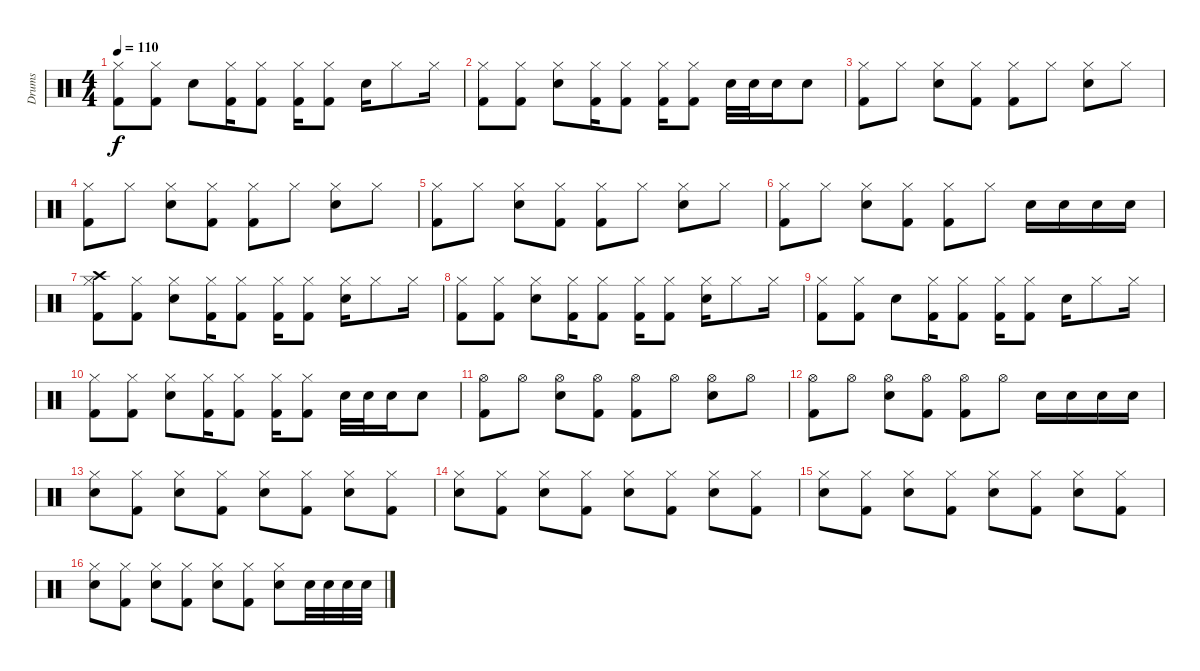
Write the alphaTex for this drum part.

\track ("Drums" "Drums") {instrument percussion}
\staff {score}
\articulation defaults
\ts (4 4)
\tempo 110
\clef neutral
\ks c
("Hi-Hat (closed)" "Kick (hit) 2").8{dy f} ("Hi-Hat (closed)" "Kick (hit) 2").8 "Electric Snare (hit)".8 ("Hi-Hat (closed)" "Kick (hit) 2").16 ("Hi-Hat (closed)" "Kick (hit) 2").8 ("Hi-Hat (closed)" "Kick (hit) 2").16 ("Hi-Hat (closed)" "Kick (hit) 2").8 "Electric Snare (hit)".16 "Hi-Hat (closed)".8 "Hi-Hat (closed)".16 |
("Hi-Hat (closed)" "Kick (hit) 2").8 ("Hi-Hat (closed)" "Kick (hit) 2").8 ("Hi-Hat (closed)" "Electric Snare (hit)").8 ("Hi-Hat (closed)" "Kick (hit) 2").16 ("Hi-Hat (closed)" "Kick (hit) 2").8 ("Hi-Hat (closed)" "Kick (hit) 2").16 ("Hi-Hat (closed)" "Kick (hit) 2").8 "Electric Snare (hit)".32 "Electric Snare (hit)".32 "Electric Snare (hit)".16 "Electric Snare (hit)".8 |
("Hi-Hat (closed)" "Kick (hit) 2").8 "Hi-Hat (closed)".8 ("Hi-Hat (closed)" "Electric Snare (hit)").8 ("Hi-Hat (closed)" "Kick (hit) 2").8 ("Hi-Hat (closed)" "Kick (hit) 2").8 "Hi-Hat (closed)".8 ("Hi-Hat (closed)" "Electric Snare (hit)").8 "Hi-Hat (closed)".8 |
("Hi-Hat (closed)" "Kick (hit) 2").8 "Hi-Hat (closed)".8 ("Hi-Hat (closed)" "Electric Snare (hit)").8 ("Hi-Hat (closed)" "Kick (hit) 2").8 ("Hi-Hat (closed)" "Kick (hit) 2").8 "Hi-Hat (closed)".8 ("Hi-Hat (closed)" "Electric Snare (hit)").8 "Hi-Hat (closed)".8 |
("Hi-Hat (closed)" "Kick (hit) 2").8 "Hi-Hat (closed)".8 ("Hi-Hat (closed)" "Electric Snare (hit)").8 ("Hi-Hat (closed)" "Kick (hit) 2").8 ("Hi-Hat (closed)" "Kick (hit) 2").8 "Hi-Hat (closed)".8 ("Hi-Hat (closed)" "Electric Snare (hit)").8 "Hi-Hat (closed)".8 |
("Hi-Hat (closed)" "Kick (hit) 2").8 "Hi-Hat (closed)".8 ("Hi-Hat (closed)" "Electric Snare (hit)").8 ("Hi-Hat (closed)" "Kick (hit) 2").8 ("Hi-Hat (closed)" "Kick (hit) 2").8 "Hi-Hat (closed)".8 "Electric Snare (hit)".16 "Electric Snare (hit)".16 "Electric Snare (hit)".16 "Electric Snare (hit)".16 |
("Crash high (hit)" "Hi-Hat (closed)" "Kick (hit) 2").8 ("Hi-Hat (closed)" "Kick (hit) 2").8 ("Hi-Hat (closed)" "Electric Snare (hit)").8 ("Hi-Hat (closed)" "Kick (hit) 2").16 ("Hi-Hat (closed)" "Kick (hit) 2").8 ("Hi-Hat (closed)" "Kick (hit) 2").16 ("Hi-Hat (closed)" "Kick (hit) 2").8 ("Hi-Hat (closed)" "Electric Snare (hit)").16 "Hi-Hat (closed)".8 "Hi-Hat (closed)".16 |
("Hi-Hat (closed)" "Kick (hit) 2").8 ("Hi-Hat (closed)" "Kick (hit) 2").8 ("Hi-Hat (closed)" "Electric Snare (hit)").8 ("Hi-Hat (closed)" "Kick (hit) 2").16 ("Hi-Hat (closed)" "Kick (hit) 2").8 ("Hi-Hat (closed)" "Kick (hit) 2").16 ("Hi-Hat (closed)" "Kick (hit) 2").8 ("Hi-Hat (closed)" "Electric Snare (hit)").16 "Hi-Hat (closed)".8 "Hi-Hat (closed)".16 |
("Hi-Hat (closed)" "Kick (hit) 2").8 ("Hi-Hat (closed)" "Kick (hit) 2").8 "Electric Snare (hit)".8 ("Hi-Hat (closed)" "Kick (hit) 2").16 ("Hi-Hat (closed)" "Kick (hit) 2").8 ("Hi-Hat (closed)" "Kick (hit) 2").16 ("Hi-Hat (closed)" "Kick (hit) 2").8 "Electric Snare (hit)".16 "Hi-Hat (closed)".8 "Hi-Hat (closed)".16 |
("Hi-Hat (closed)" "Kick (hit) 2").8 ("Hi-Hat (closed)" "Kick (hit) 2").8 ("Hi-Hat (closed)" "Electric Snare (hit)").8 ("Hi-Hat (closed)" "Kick (hit) 2").16 ("Hi-Hat (closed)" "Kick (hit) 2").8 ("Hi-Hat (closed)" "Kick (hit) 2").16 ("Hi-Hat (closed)" "Kick (hit) 2").8 "Electric Snare (hit)".32 "Electric Snare (hit)".32 "Electric Snare (hit)".16 "Electric Snare (hit)".8 |
("Hi-Hat (open)" "Kick (hit) 2").8 "Hi-Hat (open)".8 ("Hi-Hat (open)" "Electric Snare (hit)").8 ("Hi-Hat (open)" "Kick (hit) 2").8 ("Hi-Hat (open)" "Kick (hit) 2").8 "Hi-Hat (open)".8 ("Hi-Hat (open)" "Electric Snare (hit)").8 "Hi-Hat (open)".8 |
("Hi-Hat (open)" "Kick (hit) 2").8 "Hi-Hat (open)".8 ("Hi-Hat (open)" "Electric Snare (hit)").8 ("Hi-Hat (open)" "Kick (hit) 2").8 ("Hi-Hat (open)" "Kick (hit) 2").8 "Hi-Hat (open)".8 "Electric Snare (hit)".16 "Electric Snare (hit)".16 "Electric Snare (hit)".16 "Electric Snare (hit)".16 |
("Hi-Hat (closed)" "Electric Snare (hit)").8 ("Hi-Hat (closed)" "Kick (hit) 2").8 ("Hi-Hat (closed)" "Electric Snare (hit)").8 ("Hi-Hat (closed)" "Kick (hit) 2").8 ("Hi-Hat (closed)" "Electric Snare (hit)").8 ("Hi-Hat (closed)" "Kick (hit) 2").8 ("Hi-Hat (closed)" "Electric Snare (hit)").8 ("Hi-Hat (closed)" "Kick (hit) 2").8 |
("Hi-Hat (closed)" "Electric Snare (hit)").8 ("Hi-Hat (closed)" "Kick (hit) 2").8 ("Hi-Hat (closed)" "Electric Snare (hit)").8 ("Hi-Hat (closed)" "Kick (hit) 2").8 ("Hi-Hat (closed)" "Electric Snare (hit)").8 ("Hi-Hat (closed)" "Kick (hit) 2").8 ("Hi-Hat (closed)" "Electric Snare (hit)").8 ("Hi-Hat (closed)" "Kick (hit) 2").8 |
("Hi-Hat (closed)" "Electric Snare (hit)").8 ("Hi-Hat (closed)" "Kick (hit) 2").8 ("Hi-Hat (closed)" "Electric Snare (hit)").8 ("Hi-Hat (closed)" "Kick (hit) 2").8 ("Hi-Hat (closed)" "Electric Snare (hit)").8 ("Hi-Hat (closed)" "Kick (hit) 2").8 ("Hi-Hat (closed)" "Electric Snare (hit)").8 ("Hi-Hat (closed)" "Kick (hit) 2").8 |
("Hi-Hat (closed)" "Electric Snare (hit)").8 ("Hi-Hat (closed)" "Kick (hit) 2").8 ("Hi-Hat (closed)" "Electric Snare (hit)").8 ("Hi-Hat (closed)" "Kick (hit) 2").8 ("Hi-Hat (closed)" "Electric Snare (hit)").8 ("Hi-Hat (closed)" "Kick (hit) 2").8 ("Hi-Hat (closed)" "Electric Snare (hit)").8 "Electric Snare (hit)".32 "Electric Snare (hit)".32 "Electric Snare (hit)".32 "Electric Snare (hit)".32
